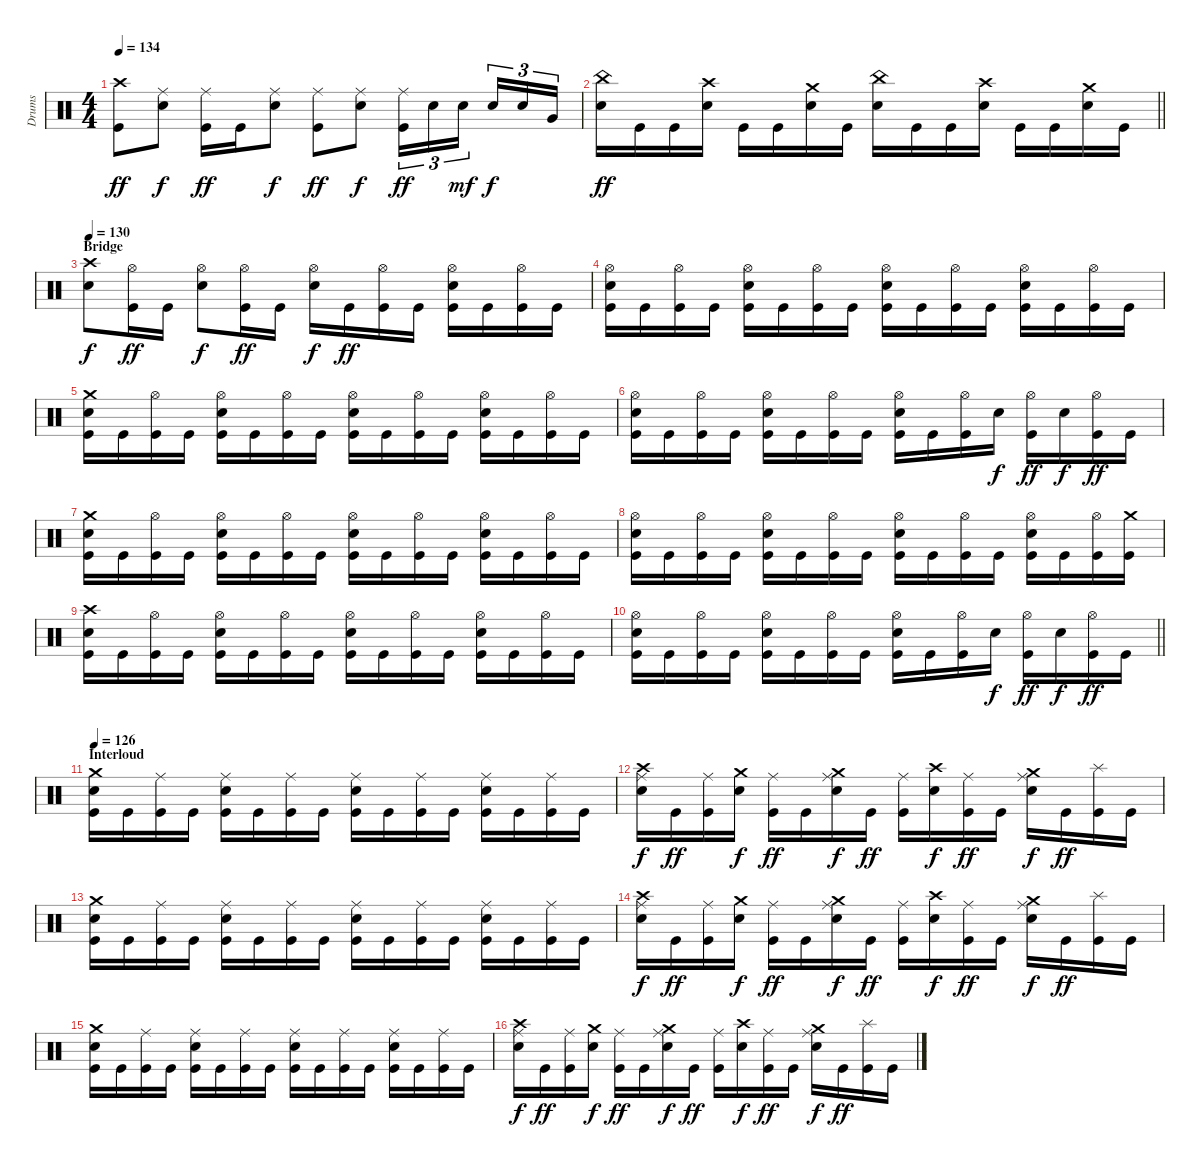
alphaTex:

\track ("Drums" "Drums") {instrument percussion}
\staff {score}
\articulation defaults
\ts (4 4)
\tempo 134
\clef neutral
\ks c
("Crash high (hit)" "Kick (hit)").8{dy ff} ("Ride (middle)" "Snare (hit) 2").8{dy f} ("Ride (middle)" "Kick (hit)").16{dy ff} "Kick (hit)".16 ("Ride (middle)" "Snare (hit) 2").8{dy f} ("Ride (middle)" "Kick (hit)").8{dy ff} ("Ride (middle)" "Snare (hit) 2").8{dy f} ("Ride (middle)" "Kick (hit)").16{tu (3 2) dy ff} "Snare (hit) 2".16{tu (3 2)} "Snare (hit) 2".16{tu (3 2) dy mf} "Snare (hit) 2".16{tu (3 2) dy f} "Snare (hit) 2".16{tu (3 2)} "Very Low Tom (hit)".16{tu (3 2)} |
\barLineRight lightlight
("China (hit)" "Snare (hit) 2").16{dy ff} "Kick (hit)".16 "Kick (hit)".16 ("Crash high (hit)" "Snare (hit) 2").16 "Kick (hit)".16 "Kick (hit)".16 ("Crash medium (hit)" "Snare (hit) 2").16 "Kick (hit)".16 ("China (hit)" "Snare (hit) 2").16 "Kick (hit)".16 "Kick (hit)".16 ("Crash high (hit)" "Snare (hit) 2").16 "Kick (hit)".16 "Kick (hit)".16 ("Crash medium (hit)" "Snare (hit) 2").16 "Kick (hit)".16 |
\section ("" "Bridge")
\tempo 130
("Crash high (hit)" "Snare (hit) 2").8{dy f} ("Hi-Hat (open)" "Kick (hit)").16{dy ff} "Kick (hit)".16 ("Hi-Hat (open)" "Snare (hit) 2").8{dy f} ("Hi-Hat (open)" "Kick (hit)").16{dy ff} "Kick (hit)".16 ("Hi-Hat (open)" "Snare (hit) 2").16{dy f} "Kick (hit)".16{dy ff} ("Hi-Hat (open)" "Kick (hit)").16 "Kick (hit)".16 ("Hi-Hat (open)" "Snare (hit) 2" "Kick (hit)").16 "Kick (hit)".16 ("Hi-Hat (open)" "Kick (hit)").16 "Kick (hit)".16 |
("Hi-Hat (open)" "Snare (hit) 2" "Kick (hit)").16 "Kick (hit)".16 ("Hi-Hat (open)" "Kick (hit)").16 "Kick (hit)".16 ("Hi-Hat (open)" "Snare (hit) 2" "Kick (hit)").16 "Kick (hit)".16 ("Hi-Hat (open)" "Kick (hit)").16 "Kick (hit)".16 ("Hi-Hat (open)" "Snare (hit) 2" "Kick (hit)").16 "Kick (hit)".16 ("Hi-Hat (open)" "Kick (hit)").16 "Kick (hit)".16 ("Hi-Hat (open)" "Snare (hit) 2" "Kick (hit)").16 "Kick (hit)".16 ("Hi-Hat (open)" "Kick (hit)").16 "Kick (hit)".16 |
("Crash medium (hit)" "Snare (hit) 2" "Kick (hit)").16 "Kick (hit)".16 ("Hi-Hat (open)" "Kick (hit)").16 "Kick (hit)".16 ("Hi-Hat (open)" "Snare (hit) 2" "Kick (hit)").16 "Kick (hit)".16 ("Hi-Hat (open)" "Kick (hit)").16 "Kick (hit)".16 ("Hi-Hat (open)" "Snare (hit) 2" "Kick (hit)").16 "Kick (hit)".16 ("Hi-Hat (open)" "Kick (hit)").16 "Kick (hit)".16 ("Hi-Hat (open)" "Snare (hit) 2" "Kick (hit)").16 "Kick (hit)".16 ("Hi-Hat (open)" "Kick (hit)").16 "Kick (hit)".16 |
("Hi-Hat (open)" "Snare (hit) 2" "Kick (hit)").16 "Kick (hit)".16 ("Hi-Hat (open)" "Kick (hit)").16 "Kick (hit)".16 ("Hi-Hat (open)" "Snare (hit) 2" "Kick (hit)").16 "Kick (hit)".16 ("Hi-Hat (open)" "Kick (hit)").16 "Kick (hit)".16 ("Hi-Hat (open)" "Snare (hit) 2" "Kick (hit)").16 "Kick (hit)".16 ("Hi-Hat (open)" "Kick (hit)").16 "Snare (hit) 2".16{dy f} ("Hi-Hat (open)" "Kick (hit)").16{dy ff} "Snare (hit) 2".16{dy f} ("Hi-Hat (open)" "Kick (hit)").16{dy ff} "Kick (hit)".16 |
("Crash medium (hit)" "Snare (hit) 2" "Kick (hit)").16 "Kick (hit)".16 ("Hi-Hat (open)" "Kick (hit)").16 "Kick (hit)".16 ("Hi-Hat (open)" "Snare (hit) 2" "Kick (hit)").16 "Kick (hit)".16 ("Hi-Hat (open)" "Kick (hit)").16 "Kick (hit)".16 ("Hi-Hat (open)" "Snare (hit) 2" "Kick (hit)").16 "Kick (hit)".16 ("Hi-Hat (open)" "Kick (hit)").16 "Kick (hit)".16 ("Hi-Hat (open)" "Snare (hit) 2" "Kick (hit)").16 "Kick (hit)".16 ("Hi-Hat (open)" "Kick (hit)").16 "Kick (hit)".16 |
("Hi-Hat (open)" "Snare (hit) 2" "Kick (hit)").16 "Kick (hit)".16 ("Hi-Hat (open)" "Kick (hit)").16 "Kick (hit)".16 ("Hi-Hat (open)" "Snare (hit) 2" "Kick (hit)").16 "Kick (hit)".16 ("Hi-Hat (open)" "Kick (hit)").16 "Kick (hit)".16 ("Hi-Hat (open)" "Snare (hit) 2" "Kick (hit)").16 "Kick (hit)".16 ("Hi-Hat (open)" "Kick (hit)").16 "Kick (hit)".16 ("Hi-Hat (open)" "Snare (hit) 2" "Kick (hit)").16 "Kick (hit)".16 ("Hi-Hat (open)" "Kick (hit)").16 ("Crash medium (hit)" "Kick (hit)").16 |
("Crash high (hit)" "Snare (hit) 2" "Kick (hit)").16 "Kick (hit)".16 ("Hi-Hat (open)" "Kick (hit)").16 "Kick (hit)".16 ("Hi-Hat (open)" "Snare (hit) 2" "Kick (hit)").16 "Kick (hit)".16 ("Hi-Hat (open)" "Kick (hit)").16 "Kick (hit)".16 ("Hi-Hat (open)" "Snare (hit) 2" "Kick (hit)").16 "Kick (hit)".16 ("Hi-Hat (open)" "Kick (hit)").16 "Kick (hit)".16 ("Hi-Hat (open)" "Snare (hit) 2" "Kick (hit)").16 "Kick (hit)".16 ("Hi-Hat (open)" "Kick (hit)").16 "Kick (hit)".16 |
\barLineRight lightlight
("Hi-Hat (open)" "Snare (hit) 2" "Kick (hit)").16 "Kick (hit)".16 ("Hi-Hat (open)" "Kick (hit)").16 "Kick (hit)".16 ("Hi-Hat (open)" "Snare (hit) 2" "Kick (hit)").16 "Kick (hit)".16 ("Hi-Hat (open)" "Kick (hit)").16 "Kick (hit)".16 ("Hi-Hat (open)" "Snare (hit) 2" "Kick (hit)").16 "Kick (hit)".16 ("Hi-Hat (open)" "Kick (hit)").16 "Snare (hit) 2".16{dy f} ("Hi-Hat (open)" "Kick (hit)").16{dy ff} "Snare (hit) 2".16{dy f} ("Hi-Hat (open)" "Kick (hit)").16{dy ff} "Kick (hit)".16 |
\section ("" "Interloud")
\tempo 126
("Crash medium (hit)" "Snare (hit) 2" "Kick (hit)").16 "Kick (hit)".16 ("Ride (middle)" "Kick (hit)").16 "Kick (hit)".16 ("Ride (middle)" "Snare (hit) 2" "Kick (hit)").16 "Kick (hit)".16 ("Ride (middle)" "Kick (hit)").16 "Kick (hit)".16 ("Ride (middle)" "Snare (hit) 2" "Kick (hit)").16 "Kick (hit)".16 ("Ride (middle)" "Kick (hit)").16 "Kick (hit)".16 ("Ride (middle)" "Snare (hit) 2" "Kick (hit)").16 "Kick (hit)".16 ("Ride (middle)" "Kick (hit)").16 "Kick (hit)".16 |
("Crash high (hit)" "Ride (middle)" "Snare (hit) 2").16{dy f} "Kick (hit)".16{dy ff} ("Ride (middle)" "Kick (hit)").16 ("Crash medium (hit)" "Snare (hit) 2").16{dy f} ("Ride (middle)" "Kick (hit)").16{dy ff} "Kick (hit)".16 ("Crash medium (hit)" "Ride (middle)" "Snare (hit) 2").16{dy f} "Kick (hit)".16{dy ff} ("Ride (middle)" "Kick (hit)").16 ("Crash high (hit)" "Snare (hit) 2").16{dy f} ("Ride (middle)" "Kick (hit)").16{dy ff} "Kick (hit)".16 ("Crash medium (hit)" "Ride (middle)" "Snare (hit) 2").16{dy f} "Kick (hit)".16{dy ff} ("Splash (hit)" "Kick (hit)").16 "Kick (hit)".16 |
("Crash medium (hit)" "Snare (hit) 2" "Kick (hit)").16 "Kick (hit)".16 ("Ride (middle)" "Kick (hit)").16 "Kick (hit)".16 ("Ride (middle)" "Snare (hit) 2" "Kick (hit)").16 "Kick (hit)".16 ("Ride (middle)" "Kick (hit)").16 "Kick (hit)".16 ("Ride (middle)" "Snare (hit) 2" "Kick (hit)").16 "Kick (hit)".16 ("Ride (middle)" "Kick (hit)").16 "Kick (hit)".16 ("Ride (middle)" "Snare (hit) 2" "Kick (hit)").16 "Kick (hit)".16 ("Ride (middle)" "Kick (hit)").16 "Kick (hit)".16 |
("Crash high (hit)" "Ride (middle)" "Snare (hit) 2").16{dy f} "Kick (hit)".16{dy ff} ("Ride (middle)" "Kick (hit)").16 ("Crash medium (hit)" "Snare (hit) 2").16{dy f} ("Ride (middle)" "Kick (hit)").16{dy ff} "Kick (hit)".16 ("Crash medium (hit)" "Ride (middle)" "Snare (hit) 2").16{dy f} "Kick (hit)".16{dy ff} ("Ride (middle)" "Kick (hit)").16 ("Crash high (hit)" "Snare (hit) 2").16{dy f} ("Ride (middle)" "Kick (hit)").16{dy ff} "Kick (hit)".16 ("Crash medium (hit)" "Ride (middle)" "Snare (hit) 2").16{dy f} "Kick (hit)".16{dy ff} ("Splash (hit)" "Kick (hit)").16 "Kick (hit)".16 |
("Crash medium (hit)" "Snare (hit) 2" "Kick (hit)").16 "Kick (hit)".16 ("Ride (middle)" "Kick (hit)").16 "Kick (hit)".16 ("Ride (middle)" "Snare (hit) 2" "Kick (hit)").16 "Kick (hit)".16 ("Ride (middle)" "Kick (hit)").16 "Kick (hit)".16 ("Ride (middle)" "Snare (hit) 2" "Kick (hit)").16 "Kick (hit)".16 ("Ride (middle)" "Kick (hit)").16 "Kick (hit)".16 ("Ride (middle)" "Snare (hit) 2" "Kick (hit)").16 "Kick (hit)".16 ("Ride (middle)" "Kick (hit)").16 "Kick (hit)".16 |
("Crash high (hit)" "Ride (middle)" "Snare (hit) 2").16{dy f} "Kick (hit)".16{dy ff} ("Ride (middle)" "Kick (hit)").16 ("Crash medium (hit)" "Snare (hit) 2").16{dy f} ("Ride (middle)" "Kick (hit)").16{dy ff} "Kick (hit)".16 ("Crash medium (hit)" "Ride (middle)" "Snare (hit) 2").16{dy f} "Kick (hit)".16{dy ff} ("Ride (middle)" "Kick (hit)").16 ("Crash high (hit)" "Snare (hit) 2").16{dy f} ("Ride (middle)" "Kick (hit)").16{dy ff} "Kick (hit)".16 ("Crash medium (hit)" "Ride (middle)" "Snare (hit) 2").16{dy f} "Kick (hit)".16{dy ff} ("Splash (hit)" "Kick (hit)").16 "Kick (hit)".16
